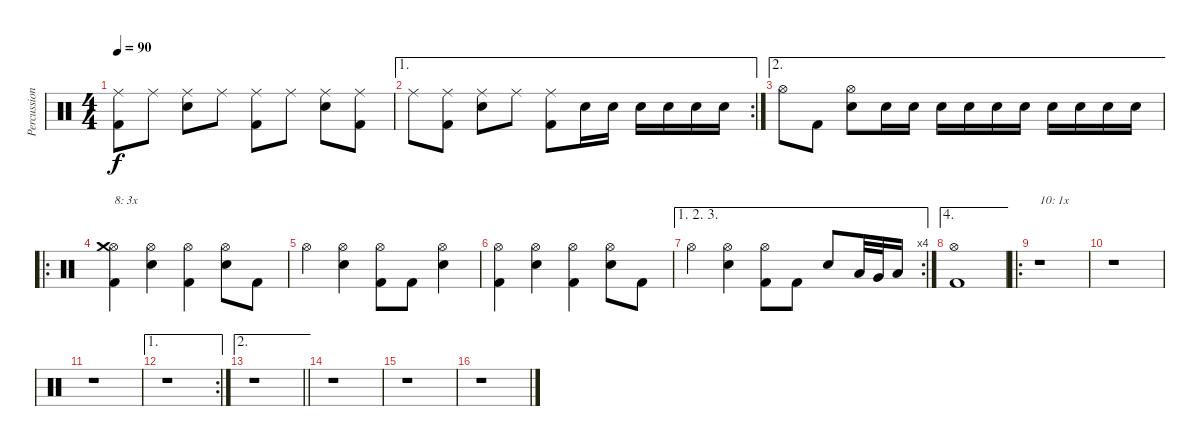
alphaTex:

\track ("Percussion" "Percussion") {instrument percussion}
\staff {score}
\articulation defaults
\ts (4 4)
\tempo 90
\clef neutral
\ks c
("Kick (hit) 2" "Ride (middle)").8{dy f} "Ride (middle)".8 ("Electric Snare (hit)" "Ride (middle)").8 "Ride (middle)".8 ("Kick (hit) 2" "Ride (middle)").8 "Ride (middle)".8 ("Electric Snare (hit)" "Ride (middle)").8 ("Kick (hit) 2" "Ride (middle)").8 |
\ae 1
\rc 2 "Ride (middle)".8
("Kick (hit) 2" "Ride (middle)").8 ("Electric Snare (hit)" "Ride (middle)").8 "Ride (middle)".8 ("Kick (hit) 2" "Ride (middle)").8 "Electric Snare (hit)".16 "Electric Snare (hit)".16 "Electric Snare (hit)".16 "Electric Snare (hit)".16 "Electric Snare (hit)".16 "Electric Snare (hit)".16 |
\ae 2 "Hi-Hat (open)".8 "Kick (hit) 2".8
("Electric Snare (hit)" "Hi-Hat (open)").8 "Electric Snare (hit)".16 "Electric Snare (hit)".16 "Electric Snare (hit)".16 "Electric Snare (hit)".16 "Electric Snare (hit)".16 "Electric Snare (hit)".16 "Electric Snare (hit)".16 "Electric Snare (hit)".16 "Electric Snare (hit)".16 "Electric Snare (hit)".16 |
\ro
("Kick (hit) 2" "Hi-Hat (open)" "Crash medium (hit)").4{txt "8: 3x"} ("Electric Snare (hit)" "Hi-Hat (open)").4 ("Kick (hit) 2" "Hi-Hat (open)").4 ("Electric Snare (hit)" "Hi-Hat (open)").8 "Kick (hit) 2".8 |
"Hi-Hat (open)".4 ("Electric Snare (hit)" "Hi-Hat (open)").4 ("Kick (hit) 2" "Hi-Hat (open)").8 "Kick (hit) 2".8 ("Electric Snare (hit)" "Hi-Hat (open)").4 |
("Kick (hit) 2" "Hi-Hat (open)").4 ("Electric Snare (hit)" "Hi-Hat (open)").4 ("Kick (hit) 2" "Hi-Hat (open)").4 ("Electric Snare (hit)" "Hi-Hat (open)").8 "Kick (hit) 2".8 |
\ae (1 2 3)
\rc 4 "Hi-Hat (open)".4
("Electric Snare (hit)" "Hi-Hat (open)").4 ("Kick (hit) 2" "Hi-Hat (open)").8 "Kick (hit) 2".8 "Electric Snare (hit)".8 "Low Tom (hit)".32 "Very Low Tom (hit)".32 "Low Floor Tom (hit)".16 |
\ae 4
("Hi-Hat (open)" "Kick (hit) 2").1 |
\ro
r.1{txt "10: 1x"} |
r.1 |
r.1 |
\ae 1
\rc 2
r.1 |
\ae 2
\barLineRight lightlight
r.1 |
r.1 |
r.1 |
r.1
